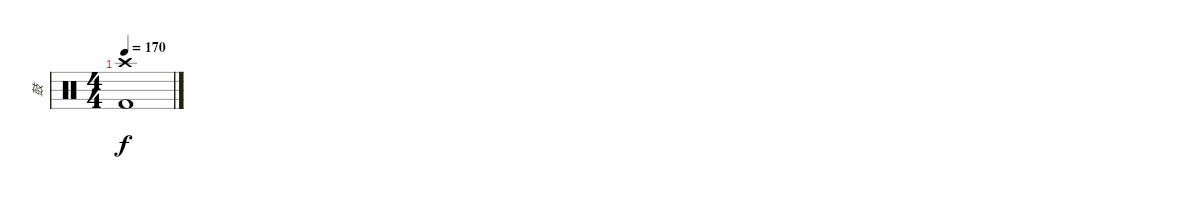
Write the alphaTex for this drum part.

\track ("鼓" "鼓") {instrument percussion}
\staff {score}
\articulation defaults
\ts (4 4)
\tempo 170
\clef neutral
\ks c
("Crash high (hit)" "Kick (hit) 2").1{dy f}
